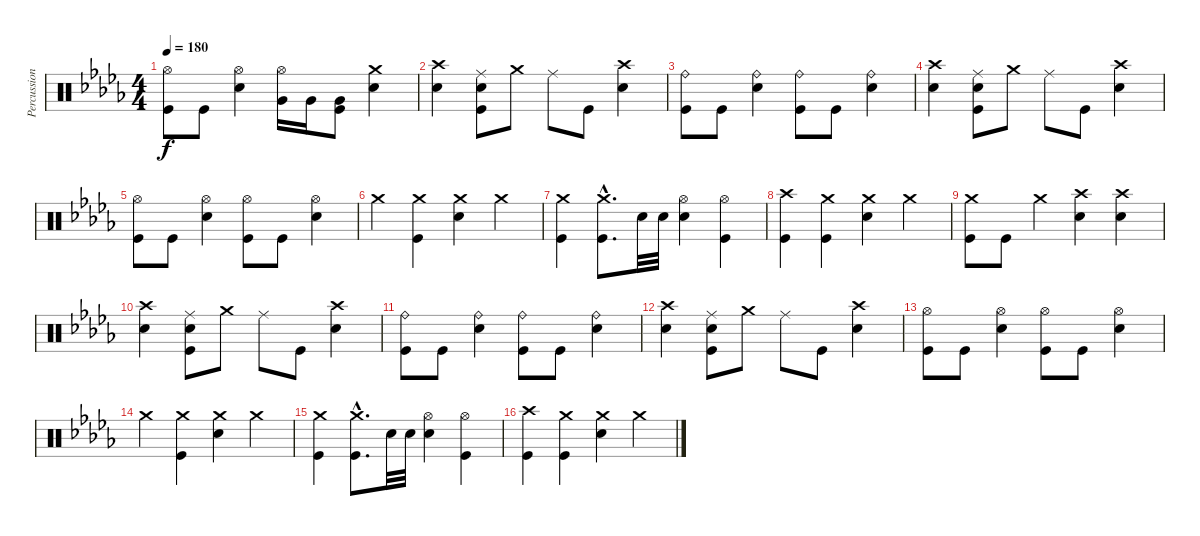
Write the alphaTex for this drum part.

\track ("Percussion" "Percussion") {instrument percussion}
\staff {score}
\articulation defaults
\ts (4 4)
\tempo 180
\clef neutral
\ks db
("Hi-Hat (open)" "Kick (hit)").8{dy f} "Kick (hit)".8 ("Hi-Hat (open)" "Electric Snare (hit)").4 ("Hi-Hat (open)" "Very Low Tom (hit)").16 "Very Low Tom (hit)".16 ("Very Low Tom (hit)" "Kick (hit)").8 ("Crash medium (hit)" "Electric Snare (hit)").4 |
("Crash high (hit)" "Electric Snare (hit)").4 ("Ride (middle)" "Electric Snare (hit)" "Kick (hit)").8 "Crash medium (hit)".8 "Ride (middle)".8 "Kick (hit)".8 ("Crash high (hit)" "Electric Snare (hit)").4 |
("Ride (bell)" "Kick (hit)").8 "Kick (hit)".8 ("Ride (bell)" "Electric Snare (hit)").4 ("Ride (bell)" "Kick (hit)").8 "Kick (hit)".8 ("Ride (bell)" "Electric Snare (hit)").4 |
("Crash high (hit)" "Electric Snare (hit)").4 ("Ride (middle)" "Electric Snare (hit)" "Kick (hit)").8 "Crash medium (hit)".8 "Ride (middle)".8 "Kick (hit)".8 ("Crash high (hit)" "Electric Snare (hit)").4 |
("Hi-Hat (open)" "Kick (hit)").8 "Kick (hit)".8 ("Hi-Hat (open)" "Electric Snare (hit)").4 ("Hi-Hat (open)" "Kick (hit)").8 "Kick (hit)".8 ("Hi-Hat (open)" "Electric Snare (hit)").4 |
"Crash medium (hit)".4 ("Crash medium (hit)" "Kick (hit)").4 ("Crash medium (hit)" "Electric Snare (hit)").4 "Crash medium (hit)".4 |
("Crash medium (hit)" "Kick (hit)").4 ("Crash medium (hit)"{hac} "Kick (hit)"{hac}).8{d} "Electric Snare (hit)".32 "Electric Snare (hit)".32 ("Hi-Hat (open)" "Electric Snare (hit)").4 ("Hi-Hat (open)" "Kick (hit)").4 |
("Crash high (hit)" "Kick (hit)").4 ("Crash medium (hit)" "Kick (hit)").4 ("Crash medium (hit)" "Electric Snare (hit)").4 "Crash medium (hit)".4 |
("Crash medium (hit)" "Kick (hit)").8 "Kick (hit)".8 "Crash medium (hit)".4 ("Crash high (hit)" "Electric Snare (hit)").4 ("Crash high (hit)" "Electric Snare (hit)").4 |
("Crash high (hit)" "Electric Snare (hit)").4 ("Ride (middle)" "Electric Snare (hit)" "Kick (hit)").8 "Crash medium (hit)".8 "Ride (middle)".8 "Kick (hit)".8 ("Crash high (hit)" "Electric Snare (hit)").4 |
("Ride (bell)" "Kick (hit)").8 "Kick (hit)".8 ("Ride (bell)" "Electric Snare (hit)").4 ("Ride (bell)" "Kick (hit)").8 "Kick (hit)".8 ("Ride (bell)" "Electric Snare (hit)").4 |
("Crash high (hit)" "Electric Snare (hit)").4 ("Ride (middle)" "Electric Snare (hit)" "Kick (hit)").8 "Crash medium (hit)".8 "Ride (middle)".8 "Kick (hit)".8 ("Crash high (hit)" "Electric Snare (hit)").4 |
("Hi-Hat (open)" "Kick (hit)").8 "Kick (hit)".8 ("Hi-Hat (open)" "Electric Snare (hit)").4 ("Hi-Hat (open)" "Kick (hit)").8 "Kick (hit)".8 ("Hi-Hat (open)" "Electric Snare (hit)").4 |
"Crash medium (hit)".4 ("Crash medium (hit)" "Kick (hit)").4 ("Crash medium (hit)" "Electric Snare (hit)").4 "Crash medium (hit)".4 |
("Crash medium (hit)" "Kick (hit)").4 ("Crash medium (hit)"{hac} "Kick (hit)"{hac}).8{d} "Electric Snare (hit)".32 "Electric Snare (hit)".32 ("Hi-Hat (open)" "Electric Snare (hit)").4 ("Hi-Hat (open)" "Kick (hit)").4 |
("Crash high (hit)" "Kick (hit)").4 ("Crash medium (hit)" "Kick (hit)").4 ("Crash medium (hit)" "Electric Snare (hit)").4 "Crash medium (hit)".4
